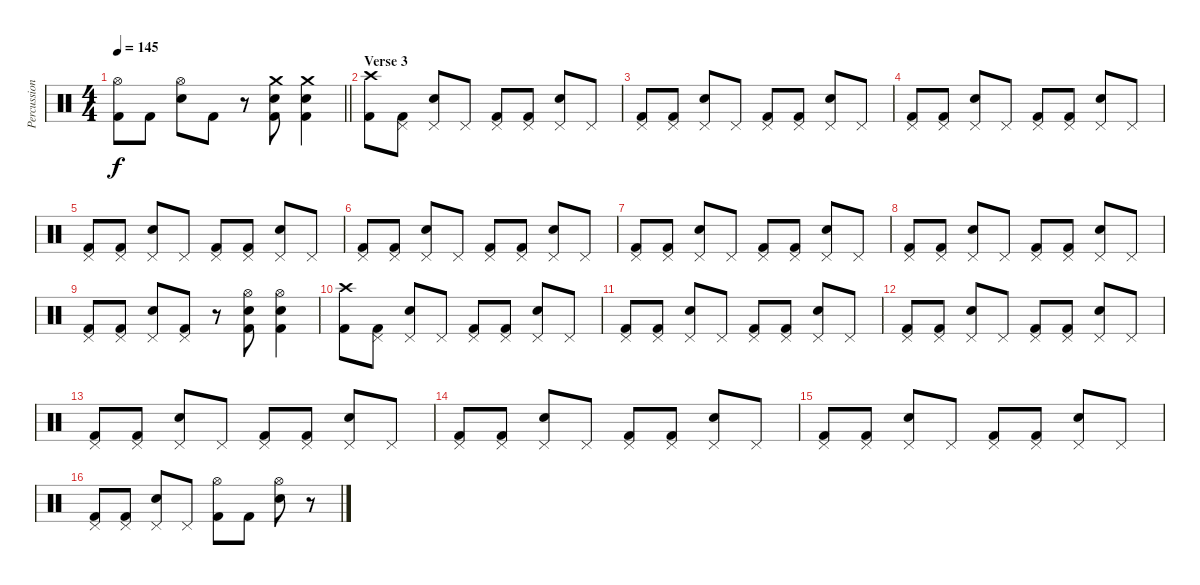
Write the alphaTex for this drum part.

\track ("Percussion" "Percussion") {instrument percussion}
\staff {score}
\articulation defaults
\ts (4 4)
\tempo 145
\clef neutral
\barLineRight lightlight
\ks c
("Hi-Hat (open)" "Kick (hit) 2").8{dy f} "Kick (hit) 2".8 ("Hi-Hat (open)" "Snare (hit) 2").8 "Kick (hit) 2".8 r.8 ("Crash medium (hit)" "Snare (hit) 2" "Kick (hit) 2").8 ("Crash medium (hit)" "Snare (hit) 2" "Kick (hit) 2").4 |
\section ("" "Verse 3")
("Crash high (hit)" "Kick (hit) 2").8 ("Pedal Hi-Hat (hit)" "Kick (hit) 2").8 ("Pedal Hi-Hat (hit)" "Snare (hit) 2").8 "Pedal Hi-Hat (hit)".8 ("Pedal Hi-Hat (hit)" "Kick (hit) 2").8 ("Pedal Hi-Hat (hit)" "Kick (hit) 2").8 ("Pedal Hi-Hat (hit)" "Snare (hit) 2").8 "Pedal Hi-Hat (hit)".8 |
("Pedal Hi-Hat (hit)" "Kick (hit) 2").8 ("Pedal Hi-Hat (hit)" "Kick (hit) 2").8 ("Pedal Hi-Hat (hit)" "Snare (hit) 2").8 "Pedal Hi-Hat (hit)".8 ("Pedal Hi-Hat (hit)" "Kick (hit) 2").8 ("Pedal Hi-Hat (hit)" "Kick (hit) 2").8 ("Pedal Hi-Hat (hit)" "Snare (hit) 2").8 "Pedal Hi-Hat (hit)".8 |
("Pedal Hi-Hat (hit)" "Kick (hit) 2").8 ("Pedal Hi-Hat (hit)" "Kick (hit) 2").8 ("Pedal Hi-Hat (hit)" "Snare (hit) 2").8 "Pedal Hi-Hat (hit)".8 ("Pedal Hi-Hat (hit)" "Kick (hit) 2").8 ("Pedal Hi-Hat (hit)" "Kick (hit) 2").8 ("Pedal Hi-Hat (hit)" "Snare (hit) 2").8 "Pedal Hi-Hat (hit)".8 |
("Pedal Hi-Hat (hit)" "Kick (hit) 2").8 ("Pedal Hi-Hat (hit)" "Kick (hit) 2").8 ("Pedal Hi-Hat (hit)" "Snare (hit) 2").8 "Pedal Hi-Hat (hit)".8 ("Pedal Hi-Hat (hit)" "Kick (hit) 2").8 ("Pedal Hi-Hat (hit)" "Kick (hit) 2").8 ("Pedal Hi-Hat (hit)" "Snare (hit) 2").8 "Pedal Hi-Hat (hit)".8 |
("Pedal Hi-Hat (hit)" "Kick (hit) 2").8 ("Pedal Hi-Hat (hit)" "Kick (hit) 2").8 ("Pedal Hi-Hat (hit)" "Snare (hit) 2").8 "Pedal Hi-Hat (hit)".8 ("Pedal Hi-Hat (hit)" "Kick (hit) 2").8 ("Pedal Hi-Hat (hit)" "Kick (hit) 2").8 ("Pedal Hi-Hat (hit)" "Snare (hit) 2").8 "Pedal Hi-Hat (hit)".8 |
("Pedal Hi-Hat (hit)" "Kick (hit) 2").8 ("Pedal Hi-Hat (hit)" "Kick (hit) 2").8 ("Pedal Hi-Hat (hit)" "Snare (hit) 2").8 "Pedal Hi-Hat (hit)".8 ("Pedal Hi-Hat (hit)" "Kick (hit) 2").8 ("Pedal Hi-Hat (hit)" "Kick (hit) 2").8 ("Pedal Hi-Hat (hit)" "Snare (hit) 2").8 "Pedal Hi-Hat (hit)".8 |
("Pedal Hi-Hat (hit)" "Kick (hit) 2").8 ("Pedal Hi-Hat (hit)" "Kick (hit) 2").8 ("Pedal Hi-Hat (hit)" "Snare (hit) 2").8 "Pedal Hi-Hat (hit)".8 ("Pedal Hi-Hat (hit)" "Kick (hit) 2").8 ("Pedal Hi-Hat (hit)" "Kick (hit) 2").8 ("Pedal Hi-Hat (hit)" "Snare (hit) 2").8 "Pedal Hi-Hat (hit)".8 |
("Pedal Hi-Hat (hit)" "Kick (hit) 2").8 ("Pedal Hi-Hat (hit)" "Kick (hit) 2").8 ("Pedal Hi-Hat (hit)" "Snare (hit) 2").8 ("Pedal Hi-Hat (hit)" "Kick (hit) 2").8 r.8 ("Hi-Hat (open)" "Snare (hit) 2" "Kick (hit) 2").8 ("Hi-Hat (open)" "Snare (hit) 2" "Kick (hit) 2").4 |
("Crash high (hit)" "Kick (hit) 2").8 ("Pedal Hi-Hat (hit)" "Kick (hit) 2").8 ("Pedal Hi-Hat (hit)" "Snare (hit) 2").8 "Pedal Hi-Hat (hit)".8 ("Pedal Hi-Hat (hit)" "Kick (hit) 2").8 ("Pedal Hi-Hat (hit)" "Kick (hit) 2").8 ("Pedal Hi-Hat (hit)" "Snare (hit) 2").8 "Pedal Hi-Hat (hit)".8 |
("Pedal Hi-Hat (hit)" "Kick (hit) 2").8 ("Pedal Hi-Hat (hit)" "Kick (hit) 2").8 ("Pedal Hi-Hat (hit)" "Snare (hit) 2").8 "Pedal Hi-Hat (hit)".8 ("Pedal Hi-Hat (hit)" "Kick (hit) 2").8 ("Pedal Hi-Hat (hit)" "Kick (hit) 2").8 ("Pedal Hi-Hat (hit)" "Snare (hit) 2").8 "Pedal Hi-Hat (hit)".8 |
("Pedal Hi-Hat (hit)" "Kick (hit) 2").8 ("Pedal Hi-Hat (hit)" "Kick (hit) 2").8 ("Pedal Hi-Hat (hit)" "Snare (hit) 2").8 "Pedal Hi-Hat (hit)".8 ("Pedal Hi-Hat (hit)" "Kick (hit) 2").8 ("Pedal Hi-Hat (hit)" "Kick (hit) 2").8 ("Pedal Hi-Hat (hit)" "Snare (hit) 2").8 "Pedal Hi-Hat (hit)".8 |
("Pedal Hi-Hat (hit)" "Kick (hit) 2").8 ("Pedal Hi-Hat (hit)" "Kick (hit) 2").8 ("Pedal Hi-Hat (hit)" "Snare (hit) 2").8 "Pedal Hi-Hat (hit)".8 ("Pedal Hi-Hat (hit)" "Kick (hit) 2").8 ("Pedal Hi-Hat (hit)" "Kick (hit) 2").8 ("Pedal Hi-Hat (hit)" "Snare (hit) 2").8 "Pedal Hi-Hat (hit)".8 |
("Pedal Hi-Hat (hit)" "Kick (hit) 2").8 ("Pedal Hi-Hat (hit)" "Kick (hit) 2").8 ("Pedal Hi-Hat (hit)" "Snare (hit) 2").8 "Pedal Hi-Hat (hit)".8 ("Pedal Hi-Hat (hit)" "Kick (hit) 2").8 ("Pedal Hi-Hat (hit)" "Kick (hit) 2").8 ("Pedal Hi-Hat (hit)" "Snare (hit) 2").8 "Pedal Hi-Hat (hit)".8 |
("Pedal Hi-Hat (hit)" "Kick (hit) 2").8 ("Pedal Hi-Hat (hit)" "Kick (hit) 2").8 ("Pedal Hi-Hat (hit)" "Snare (hit) 2").8 "Pedal Hi-Hat (hit)".8 ("Pedal Hi-Hat (hit)" "Kick (hit) 2").8 ("Pedal Hi-Hat (hit)" "Kick (hit) 2").8 ("Pedal Hi-Hat (hit)" "Snare (hit) 2").8 "Pedal Hi-Hat (hit)".8 |
("Pedal Hi-Hat (hit)" "Kick (hit) 2").8 ("Pedal Hi-Hat (hit)" "Kick (hit) 2").8 ("Pedal Hi-Hat (hit)" "Snare (hit) 2").8 "Pedal Hi-Hat (hit)".8 ("Hi-Hat (open)" "Kick (hit) 2").8 "Kick (hit) 2".8 ("Hi-Hat (open)" "Snare (hit) 2").8 r.8
